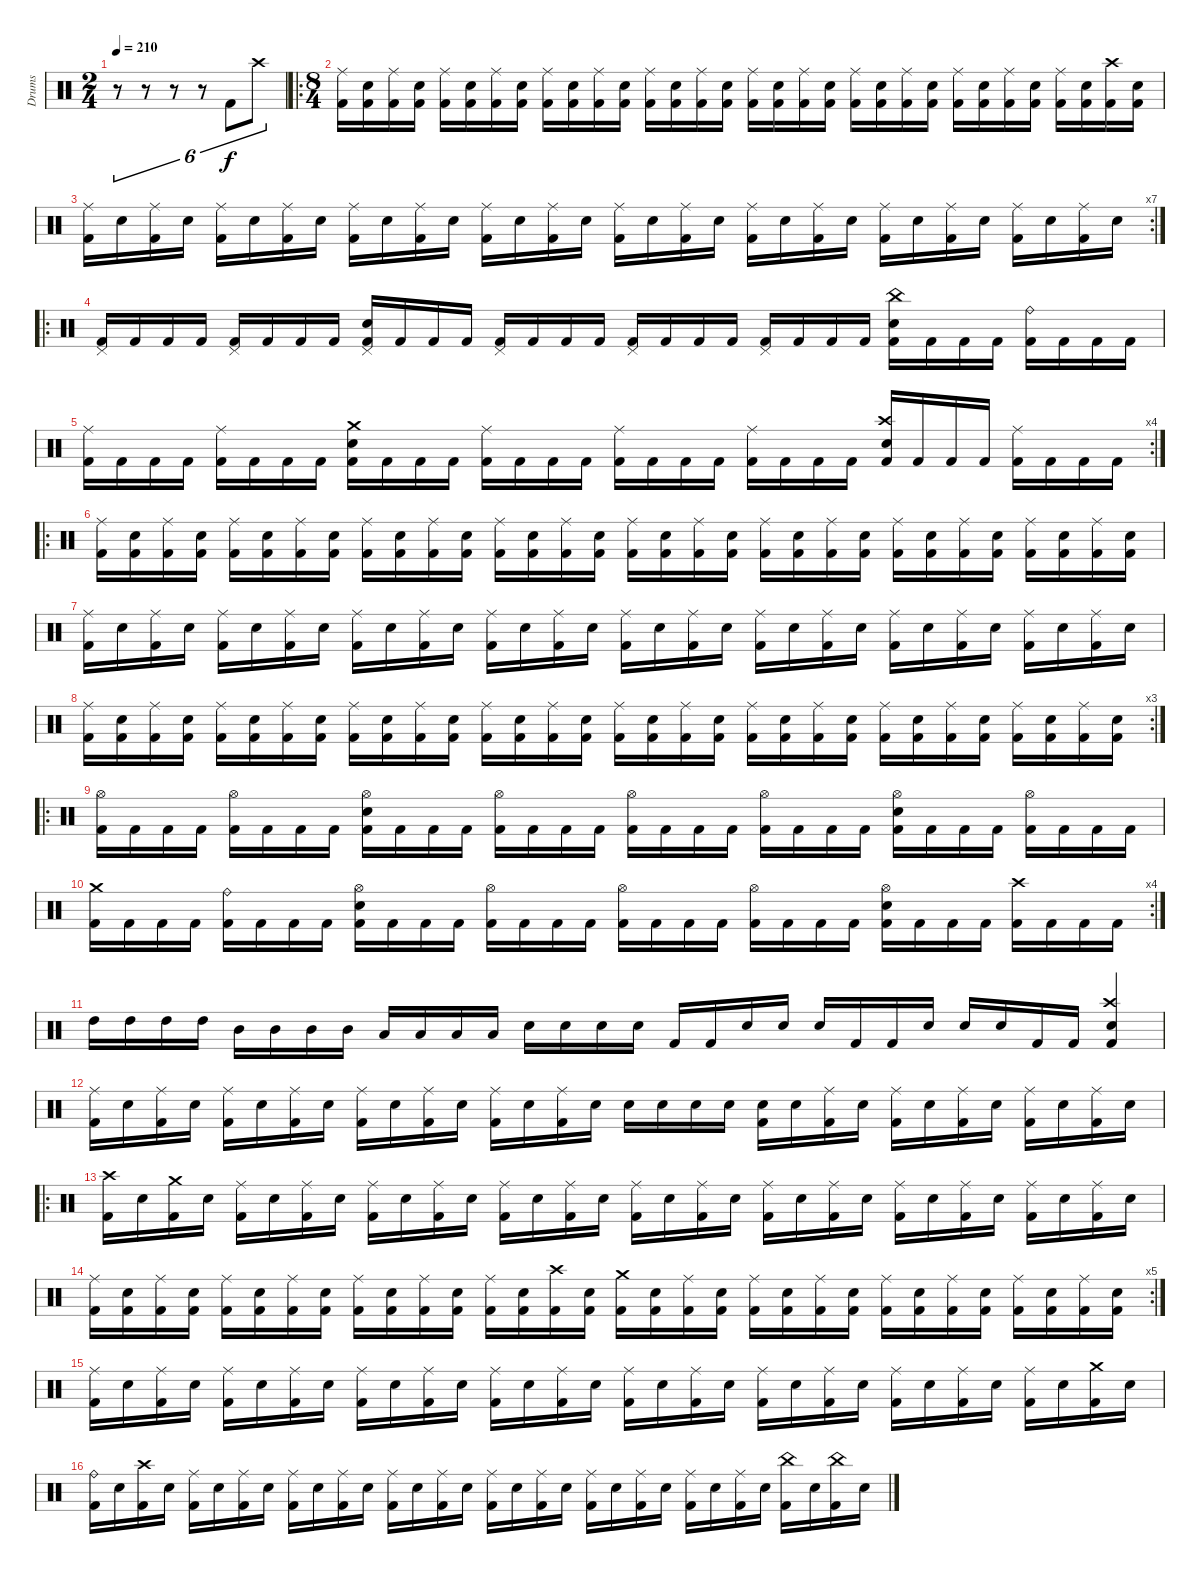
\track ("Drums" "Drums") {instrument percussion}
\staff {score}
\articulation defaults
\ts (2 4)
\tempo 210
\clef neutral
\ks c
r.8{tu (6 4) dy f} r.8{tu (6 4)} r.8{tu (6 4)} r.8{tu (6 4)} "Kick (hit) 2".8{tu (6 4)} "Crash high (hit)".8{tu (6 4)} |
\ro
\ts (8 4)
("Ride (middle)" "Kick (hit) 2").16 ("Electric Snare (hit)" "Kick (hit) 2").16 ("Ride (middle)" "Kick (hit) 2").16 ("Electric Snare (hit)" "Kick (hit) 2").16 ("Ride (middle)" "Kick (hit) 2").16 ("Electric Snare (hit)" "Kick (hit) 2").16 ("Ride (middle)" "Kick (hit) 2").16 ("Electric Snare (hit)" "Kick (hit) 2").16 ("Ride (middle)" "Kick (hit) 2").16 ("Electric Snare (hit)" "Kick (hit) 2").16 ("Ride (middle)" "Kick (hit) 2").16 ("Electric Snare (hit)" "Kick (hit) 2").16 ("Ride (middle)" "Kick (hit) 2").16 ("Electric Snare (hit)" "Kick (hit) 2").16 ("Ride (middle)" "Kick (hit) 2").16 ("Electric Snare (hit)" "Kick (hit) 2").16 ("Ride (middle)" "Kick (hit) 2").16 ("Electric Snare (hit)" "Kick (hit) 2").16 ("Ride (middle)" "Kick (hit) 2").16 ("Electric Snare (hit)" "Kick (hit) 2").16 ("Ride (middle)" "Kick (hit) 2").16 ("Electric Snare (hit)" "Kick (hit) 2").16 ("Ride (middle)" "Kick (hit) 2").16 ("Electric Snare (hit)" "Kick (hit) 2").16 ("Ride (middle)" "Kick (hit) 2").16 ("Electric Snare (hit)" "Kick (hit) 2").16 ("Ride (middle)" "Kick (hit) 2").16 ("Electric Snare (hit)" "Kick (hit) 2").16 ("Ride (middle)" "Kick (hit) 2").16 ("Electric Snare (hit)" "Kick (hit) 2").16 ("Crash high (hit)" "Kick (hit) 2").16 ("Electric Snare (hit)" "Kick (hit) 2").16 |
\rc 7
("Ride (middle)" "Kick (hit) 2").16 "Electric Snare (hit)".16 ("Ride (middle)" "Kick (hit) 2").16 "Electric Snare (hit)".16 ("Ride (middle)" "Kick (hit) 2").16 "Electric Snare (hit)".16 ("Ride (middle)" "Kick (hit) 2").16 "Electric Snare (hit)".16 ("Ride (middle)" "Kick (hit) 2").16 "Electric Snare (hit)".16 ("Ride (middle)" "Kick (hit) 2").16 "Electric Snare (hit)".16 ("Ride (middle)" "Kick (hit) 2").16 "Electric Snare (hit)".16 ("Ride (middle)" "Kick (hit) 2").16 "Electric Snare (hit)".16 ("Ride (middle)" "Kick (hit) 2").16 "Electric Snare (hit)".16 ("Ride (middle)" "Kick (hit) 2").16 "Electric Snare (hit)".16 ("Ride (middle)" "Kick (hit) 2").16 "Electric Snare (hit)".16 ("Ride (middle)" "Kick (hit) 2").16 "Electric Snare (hit)".16 ("Ride (middle)" "Kick (hit) 2").16 "Electric Snare (hit)".16 ("Ride (middle)" "Kick (hit) 2").16 "Electric Snare (hit)".16 ("Ride (middle)" "Kick (hit) 2").16 "Electric Snare (hit)".16 ("Ride (middle)" "Kick (hit) 2").16 "Electric Snare (hit)".16 |
\ro
("Pedal Hi-Hat (hit)" "Kick (hit) 2").16 "Kick (hit) 2".16 "Kick (hit) 2".16 "Kick (hit) 2".16 ("Pedal Hi-Hat (hit)" "Kick (hit) 2").16 "Kick (hit) 2".16 "Kick (hit) 2".16 "Kick (hit) 2".16 ("Pedal Hi-Hat (hit)" "Electric Snare (hit)" "Kick (hit) 2").16 "Kick (hit) 2".16 "Kick (hit) 2".16 "Kick (hit) 2".16 ("Pedal Hi-Hat (hit)" "Kick (hit) 2").16 "Kick (hit) 2".16 "Kick (hit) 2".16 "Kick (hit) 2".16 ("Pedal Hi-Hat (hit)" "Kick (hit) 2").16 "Kick (hit) 2".16 "Kick (hit) 2".16 "Kick (hit) 2".16 ("Pedal Hi-Hat (hit)" "Kick (hit) 2").16 "Kick (hit) 2".16 "Kick (hit) 2".16 "Kick (hit) 2".16 ("China (hit)" "Electric Snare (hit)" "Kick (hit) 2").16 "Kick (hit) 2".16 "Kick (hit) 2".16 "Kick (hit) 2".16 ("Ride (bell)" "Kick (hit) 2").16 "Kick (hit) 2".16 "Kick (hit) 2".16 "Kick (hit) 2".16 |
\rc 4
("Ride (middle)" "Kick (hit) 2").16 "Kick (hit) 2".16 "Kick (hit) 2".16 "Kick (hit) 2".16 ("Ride (middle)" "Kick (hit) 2").16 "Kick (hit) 2".16 "Kick (hit) 2".16 "Kick (hit) 2".16 ("Crash medium (hit)" "Electric Snare (hit)" "Kick (hit) 2").16 "Kick (hit) 2".16 "Kick (hit) 2".16 "Kick (hit) 2".16 ("Ride (middle)" "Kick (hit) 2").16 "Kick (hit) 2".16 "Kick (hit) 2".16 "Kick (hit) 2".16 ("Ride (middle)" "Kick (hit) 2").16 "Kick (hit) 2".16 "Kick (hit) 2".16 "Kick (hit) 2".16 ("Ride (middle)" "Kick (hit) 2").16 "Kick (hit) 2".16 "Kick (hit) 2".16 "Kick (hit) 2".16 ("Crash high (hit)" "Electric Snare (hit)" "Kick (hit) 2").16 "Kick (hit) 2".16 "Kick (hit) 2".16 "Kick (hit) 2".16 ("Ride (middle)" "Kick (hit) 2").16 "Kick (hit) 2".16 "Kick (hit) 2".16 "Kick (hit) 2".16 |
\ro
("Ride (middle)" "Kick (hit) 2").16 ("Electric Snare (hit)" "Kick (hit) 2").16 ("Ride (middle)" "Kick (hit) 2").16 ("Electric Snare (hit)" "Kick (hit) 2").16 ("Ride (middle)" "Kick (hit) 2").16 ("Electric Snare (hit)" "Kick (hit) 2").16 ("Ride (middle)" "Kick (hit) 2").16 ("Electric Snare (hit)" "Kick (hit) 2").16 ("Ride (middle)" "Kick (hit) 2").16 ("Electric Snare (hit)" "Kick (hit) 2").16 ("Ride (middle)" "Kick (hit) 2").16 ("Electric Snare (hit)" "Kick (hit) 2").16 ("Ride (middle)" "Kick (hit) 2").16 ("Electric Snare (hit)" "Kick (hit) 2").16 ("Ride (middle)" "Kick (hit) 2").16 ("Electric Snare (hit)" "Kick (hit) 2").16 ("Ride (middle)" "Kick (hit) 2").16 ("Electric Snare (hit)" "Kick (hit) 2").16 ("Ride (middle)" "Kick (hit) 2").16 ("Electric Snare (hit)" "Kick (hit) 2").16 ("Ride (middle)" "Kick (hit) 2").16 ("Electric Snare (hit)" "Kick (hit) 2").16 ("Ride (middle)" "Kick (hit) 2").16 ("Electric Snare (hit)" "Kick (hit) 2").16 ("Ride (middle)" "Kick (hit) 2").16 ("Electric Snare (hit)" "Kick (hit) 2").16 ("Ride (middle)" "Kick (hit) 2").16 ("Electric Snare (hit)" "Kick (hit) 2").16 ("Ride (middle)" "Kick (hit) 2").16 ("Electric Snare (hit)" "Kick (hit) 2").16 ("Ride (middle)" "Kick (hit) 2").16 ("Electric Snare (hit)" "Kick (hit) 2").16 |
("Ride (middle)" "Kick (hit) 2").16 "Electric Snare (hit)".16 ("Ride (middle)" "Kick (hit) 2").16 "Electric Snare (hit)".16 ("Ride (middle)" "Kick (hit) 2").16 "Electric Snare (hit)".16 ("Ride (middle)" "Kick (hit) 2").16 "Electric Snare (hit)".16 ("Ride (middle)" "Kick (hit) 2").16 "Electric Snare (hit)".16 ("Ride (middle)" "Kick (hit) 2").16 "Electric Snare (hit)".16 ("Ride (middle)" "Kick (hit) 2").16 "Electric Snare (hit)".16 ("Ride (middle)" "Kick (hit) 2").16 "Electric Snare (hit)".16 ("Ride (middle)" "Kick (hit) 2").16 "Electric Snare (hit)".16 ("Ride (middle)" "Kick (hit) 2").16 "Electric Snare (hit)".16 ("Ride (middle)" "Kick (hit) 2").16 "Electric Snare (hit)".16 ("Ride (middle)" "Kick (hit) 2").16 "Electric Snare (hit)".16 ("Ride (middle)" "Kick (hit) 2").16 "Electric Snare (hit)".16 ("Ride (middle)" "Kick (hit) 2").16 "Electric Snare (hit)".16 ("Ride (middle)" "Kick (hit) 2").16 "Electric Snare (hit)".16 ("Ride (middle)" "Kick (hit) 2").16 "Electric Snare (hit)".16 |
\rc 3
("Ride (middle)" "Kick (hit) 2").16 ("Electric Snare (hit)" "Kick (hit) 2").16 ("Ride (middle)" "Kick (hit) 2").16 ("Electric Snare (hit)" "Kick (hit) 2").16 ("Ride (middle)" "Kick (hit) 2").16 ("Electric Snare (hit)" "Kick (hit) 2").16 ("Ride (middle)" "Kick (hit) 2").16 ("Electric Snare (hit)" "Kick (hit) 2").16 ("Ride (middle)" "Kick (hit) 2").16 ("Electric Snare (hit)" "Kick (hit) 2").16 ("Ride (middle)" "Kick (hit) 2").16 ("Electric Snare (hit)" "Kick (hit) 2").16 ("Ride (middle)" "Kick (hit) 2").16 ("Electric Snare (hit)" "Kick (hit) 2").16 ("Ride (middle)" "Kick (hit) 2").16 ("Electric Snare (hit)" "Kick (hit) 2").16 ("Ride (middle)" "Kick (hit) 2").16 ("Electric Snare (hit)" "Kick (hit) 2").16 ("Ride (middle)" "Kick (hit) 2").16 ("Electric Snare (hit)" "Kick (hit) 2").16 ("Ride (middle)" "Kick (hit) 2").16 ("Electric Snare (hit)" "Kick (hit) 2").16 ("Ride (middle)" "Kick (hit) 2").16 ("Electric Snare (hit)" "Kick (hit) 2").16 ("Ride (middle)" "Kick (hit) 2").16 ("Electric Snare (hit)" "Kick (hit) 2").16 ("Ride (middle)" "Kick (hit) 2").16 ("Electric Snare (hit)" "Kick (hit) 2").16 ("Ride (middle)" "Kick (hit) 2").16 ("Electric Snare (hit)" "Kick (hit) 2").16 ("Ride (middle)" "Kick (hit) 2").16 ("Electric Snare (hit)" "Kick (hit) 2").16 |
\ro
("Hi-Hat (open)" "Kick (hit) 2").16 "Kick (hit) 2".16 "Kick (hit) 2".16 "Kick (hit) 2".16 ("Hi-Hat (open)" "Kick (hit) 2").16 "Kick (hit) 2".16 "Kick (hit) 2".16 "Kick (hit) 2".16 ("Hi-Hat (open)" "Electric Snare (hit)" "Kick (hit) 2").16 "Kick (hit) 2".16 "Kick (hit) 2".16 "Kick (hit) 2".16 ("Hi-Hat (open)" "Kick (hit) 2").16 "Kick (hit) 2".16 "Kick (hit) 2".16 "Kick (hit) 2".16 ("Hi-Hat (open)" "Kick (hit) 2").16 "Kick (hit) 2".16 "Kick (hit) 2".16 "Kick (hit) 2".16 ("Hi-Hat (open)" "Kick (hit) 2").16 "Kick (hit) 2".16 "Kick (hit) 2".16 "Kick (hit) 2".16 ("Hi-Hat (open)" "Electric Snare (hit)" "Kick (hit) 2").16 "Kick (hit) 2".16 "Kick (hit) 2".16 "Kick (hit) 2".16 ("Hi-Hat (open)" "Kick (hit) 2").16 "Kick (hit) 2".16 "Kick (hit) 2".16 "Kick (hit) 2".16 |
\rc 4
("Crash medium (hit)" "Kick (hit) 2").16 "Kick (hit) 2".16 "Kick (hit) 2".16 "Kick (hit) 2".16 ("Ride (bell)" "Kick (hit) 2").16 "Kick (hit) 2".16 "Kick (hit) 2".16 "Kick (hit) 2".16 ("Hi-Hat (open)" "Electric Snare (hit)" "Kick (hit) 2").16 "Kick (hit) 2".16 "Kick (hit) 2".16 "Kick (hit) 2".16 ("Hi-Hat (open)" "Kick (hit) 2").16 "Kick (hit) 2".16 "Kick (hit) 2".16 "Kick (hit) 2".16 ("Hi-Hat (open)" "Kick (hit) 2").16 "Kick (hit) 2".16 "Kick (hit) 2".16 "Kick (hit) 2".16 ("Hi-Hat (open)" "Kick (hit) 2").16 "Kick (hit) 2".16 "Kick (hit) 2".16 "Kick (hit) 2".16 ("Hi-Hat (open)" "Electric Snare (hit)" "Kick (hit) 2").16 "Kick (hit) 2".16 "Kick (hit) 2".16 "Kick (hit) 2".16 ("Crash high (hit)" "Kick (hit) 2").16 "Kick (hit) 2".16 "Kick (hit) 2".16 "Kick (hit) 2".16 |
"High Tom (hit)".16 "High Tom (hit)".16 "High Tom (hit)".16 "High Tom (hit)".16 "Mid Tom (hit)".16 "Mid Tom (hit)".16 "Mid Tom (hit)".16 "Mid Tom (hit)".16 "Low Tom (hit)".16 "Low Tom (hit)".16 "Low Tom (hit)".16 "Low Tom (hit)".16 "Electric Snare (hit)".16 "Electric Snare (hit)".16 "Electric Snare (hit)".16 "Electric Snare (hit)".16 "Kick (hit) 2".16 "Kick (hit) 2".16 "Electric Snare (hit)".16 "Electric Snare (hit)".16 "Electric Snare (hit)".16 "Kick (hit) 2".16 "Kick (hit) 2".16 "Electric Snare (hit)".16 "Electric Snare (hit)".16 "Electric Snare (hit)".16 "Kick (hit) 2".16 "Kick (hit) 2".16 ("Crash high (hit)" "Electric Snare (hit)" "Kick (hit) 2").4 |
("Ride (middle)" "Kick (hit) 2").16 "Electric Snare (hit)".16 ("Ride (middle)" "Kick (hit) 2").16 "Electric Snare (hit)".16 ("Ride (middle)" "Kick (hit) 2").16 "Electric Snare (hit)".16 ("Ride (middle)" "Kick (hit) 2").16 "Electric Snare (hit)".16 ("Ride (middle)" "Kick (hit) 2").16 "Electric Snare (hit)".16 ("Ride (middle)" "Kick (hit) 2").16 "Electric Snare (hit)".16 ("Ride (middle)" "Kick (hit) 2").16 "Electric Snare (hit)".16 ("Ride (middle)" "Kick (hit) 2").16 "Electric Snare (hit)".16 "Electric Snare (hit)".16 "Electric Snare (hit)".16 "Electric Snare (hit)".16 "Electric Snare (hit)".16 ("Electric Snare (hit)" "Kick (hit) 2").16 "Electric Snare (hit)".16 ("Ride (middle)" "Kick (hit) 2").16 "Electric Snare (hit)".16 ("Ride (middle)" "Kick (hit) 2").16 "Electric Snare (hit)".16 ("Ride (middle)" "Kick (hit) 2").16 "Electric Snare (hit)".16 ("Ride (middle)" "Kick (hit) 2").16 "Electric Snare (hit)".16 ("Ride (middle)" "Kick (hit) 2").16 "Electric Snare (hit)".16 |
\ro
("Crash high (hit)" "Kick (hit) 2").16 "Electric Snare (hit)".16 ("Crash medium (hit)" "Kick (hit) 2").16 "Electric Snare (hit)".16 ("Ride (middle)" "Kick (hit) 2").16 "Electric Snare (hit)".16 ("Ride (middle)" "Kick (hit) 2").16 "Electric Snare (hit)".16 ("Ride (middle)" "Kick (hit) 2").16 "Electric Snare (hit)".16 ("Ride (middle)" "Kick (hit) 2").16 "Electric Snare (hit)".16 ("Ride (middle)" "Kick (hit) 2").16 "Electric Snare (hit)".16 ("Ride (middle)" "Kick (hit) 2").16 "Electric Snare (hit)".16 ("Ride (middle)" "Kick (hit) 2").16 "Electric Snare (hit)".16 ("Ride (middle)" "Kick (hit) 2").16 "Electric Snare (hit)".16 ("Ride (middle)" "Kick (hit) 2").16 "Electric Snare (hit)".16 ("Ride (middle)" "Kick (hit) 2").16 "Electric Snare (hit)".16 ("Ride (middle)" "Kick (hit) 2").16 "Electric Snare (hit)".16 ("Ride (middle)" "Kick (hit) 2").16 "Electric Snare (hit)".16 ("Ride (middle)" "Kick (hit) 2").16 "Electric Snare (hit)".16 ("Ride (middle)" "Kick (hit) 2").16 "Electric Snare (hit)".16 |
\rc 5
("Ride (middle)" "Kick (hit) 2").16 ("Electric Snare (hit)" "Kick (hit) 2").16 ("Ride (middle)" "Kick (hit) 2").16 ("Electric Snare (hit)" "Kick (hit) 2").16 ("Ride (middle)" "Kick (hit) 2").16 ("Electric Snare (hit)" "Kick (hit) 2").16 ("Ride (middle)" "Kick (hit) 2").16 ("Electric Snare (hit)" "Kick (hit) 2").16 ("Ride (middle)" "Kick (hit) 2").16 ("Electric Snare (hit)" "Kick (hit) 2").16 ("Ride (middle)" "Kick (hit) 2").16 ("Electric Snare (hit)" "Kick (hit) 2").16 ("Ride (middle)" "Kick (hit) 2").16 ("Electric Snare (hit)" "Kick (hit) 2").16 ("Crash high (hit)" "Kick (hit) 2").16 ("Electric Snare (hit)" "Kick (hit) 2").16 ("Crash medium (hit)" "Kick (hit) 2").16 ("Electric Snare (hit)" "Kick (hit) 2").16 ("Ride (middle)" "Kick (hit) 2").16 ("Electric Snare (hit)" "Kick (hit) 2").16 ("Ride (middle)" "Kick (hit) 2").16 ("Electric Snare (hit)" "Kick (hit) 2").16 ("Ride (middle)" "Kick (hit) 2").16 ("Electric Snare (hit)" "Kick (hit) 2").16 ("Ride (middle)" "Kick (hit) 2").16 ("Electric Snare (hit)" "Kick (hit) 2").16 ("Ride (middle)" "Kick (hit) 2").16 ("Electric Snare (hit)" "Kick (hit) 2").16 ("Ride (middle)" "Kick (hit) 2").16 ("Electric Snare (hit)" "Kick (hit) 2").16 ("Ride (middle)" "Kick (hit) 2").16 ("Electric Snare (hit)" "Kick (hit) 2").16 |
("Ride (middle)" "Kick (hit) 2").16 "Electric Snare (hit)".16 ("Ride (middle)" "Kick (hit) 2").16 "Electric Snare (hit)".16 ("Ride (middle)" "Kick (hit) 2").16 "Electric Snare (hit)".16 ("Ride (middle)" "Kick (hit) 2").16 "Electric Snare (hit)".16 ("Ride (middle)" "Kick (hit) 2").16 "Electric Snare (hit)".16 ("Ride (middle)" "Kick (hit) 2").16 "Electric Snare (hit)".16 ("Ride (middle)" "Kick (hit) 2").16 "Electric Snare (hit)".16 ("Ride (middle)" "Kick (hit) 2").16 "Electric Snare (hit)".16 ("Ride (middle)" "Kick (hit) 2").16 "Electric Snare (hit)".16 ("Ride (middle)" "Kick (hit) 2").16 "Electric Snare (hit)".16 ("Ride (middle)" "Kick (hit) 2").16 "Electric Snare (hit)".16 ("Ride (middle)" "Kick (hit) 2").16 "Electric Snare (hit)".16 ("Ride (middle)" "Kick (hit) 2").16 "Electric Snare (hit)".16 ("Ride (middle)" "Kick (hit) 2").16 "Electric Snare (hit)".16 ("Ride (middle)" "Kick (hit) 2").16 "Electric Snare (hit)".16 ("Crash medium (hit)" "Kick (hit) 2").16 "Electric Snare (hit)".16 |
("Ride (bell)" "Kick (hit) 2").16 "Electric Snare (hit)".16 ("Crash high (hit)" "Kick (hit) 2").16 "Electric Snare (hit)".16 ("Ride (middle)" "Kick (hit) 2").16 "Electric Snare (hit)".16 ("Ride (middle)" "Kick (hit) 2").16 "Electric Snare (hit)".16 ("Ride (middle)" "Kick (hit) 2").16 "Electric Snare (hit)".16 ("Ride (middle)" "Kick (hit) 2").16 "Electric Snare (hit)".16 ("Ride (middle)" "Kick (hit) 2").16 "Electric Snare (hit)".16 ("Ride (middle)" "Kick (hit) 2").16 "Electric Snare (hit)".16 ("Ride (middle)" "Kick (hit) 2").16 "Electric Snare (hit)".16 ("Ride (middle)" "Kick (hit) 2").16 "Electric Snare (hit)".16 ("Ride (middle)" "Kick (hit) 2").16 "Electric Snare (hit)".16 ("Ride (middle)" "Kick (hit) 2").16 "Electric Snare (hit)".16 ("Ride (middle)" "Kick (hit) 2").16 "Electric Snare (hit)".16 ("Ride (middle)" "Kick (hit) 2").16 "Electric Snare (hit)".16 ("China (hit)" "Kick (hit) 2").16 "Electric Snare (hit)".16 ("China (hit)" "Kick (hit) 2").16 "Electric Snare (hit)".16
